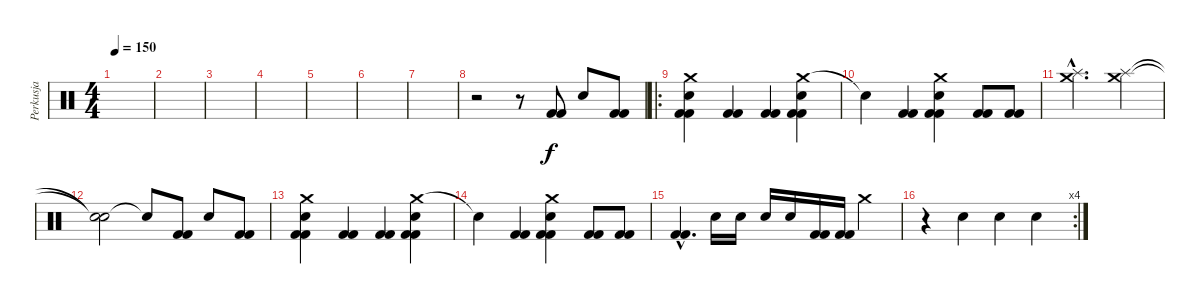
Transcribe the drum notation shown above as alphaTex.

\track ("Perkusja" "Perkusja") {instrument percussion}
\staff {score}
\articulation defaults
\ts (4 4)
\tempo 150
\clef neutral
\ks c
|
|
|
|
|
|
|
r.2 r.8 ("Kick (hit) 2" "Kick (hit) 2").8 "Snare (hit) 2".8 ("Kick (hit) 2" "Kick (hit) 2").8 |
\ro
("Crash medium (hit)" "Snare (hit) 2" "Kick (hit) 2" "Kick (hit) 2").4 ("Kick (hit) 2" "Kick (hit) 2").4 ("Kick (hit) 2" "Kick (hit) 2").4 ("Crash medium (hit)" "Snare (hit) 2" "Kick (hit) 2" "Kick (hit) 2").4 |
"Snare (hit)"{t}.4 ("Kick (hit) 2" "Kick (hit) 2").4 ("Crash medium (hit)" "Snare (hit) 2" "Kick (hit) 2" "Kick (hit) 2").4 ("Kick (hit) 2" "Kick (hit) 2").8 ("Kick (hit) 2" "Kick (hit) 2").8 |
("Crash medium (hit)"{hac} "Splash (hit)"{hac}).2{d} ("Crash medium (hit)" "Splash (hit)").4 |
("Snare (hit)"{t} "Snare (hit)"{t}).2 "Snare (hit)"{t}.8 ("Kick (hit) 2" "Kick (hit) 2").8 "Snare (hit) 2".8 ("Kick (hit) 2" "Kick (hit) 2").8 |
("Crash medium (hit)" "Snare (hit) 2" "Kick (hit) 2" "Kick (hit) 2").4 ("Kick (hit) 2" "Kick (hit) 2").4 ("Kick (hit) 2" "Kick (hit) 2").4 ("Crash medium (hit)" "Snare (hit) 2" "Kick (hit) 2" "Kick (hit) 2").4 |
"Snare (hit)"{t}.4 ("Kick (hit) 2" "Kick (hit) 2").4 ("Crash medium (hit)" "Snare (hit) 2" "Kick (hit) 2" "Kick (hit) 2").4 ("Kick (hit) 2" "Kick (hit) 2").8 ("Kick (hit) 2" "Kick (hit) 2").8 |
("Kick (hit) 2"{hac} "Kick (hit) 2"{hac}).4{d} "Snare (hit) 2".16 "Snare (hit) 2".16 "Snare (hit) 2".16 "Snare (hit) 2".16 ("Kick (hit) 2" "Kick (hit) 2").16 ("Kick (hit) 2" "Kick (hit) 2").16 "Crash medium (hit)".4 |
\rc 4
r.4 "Snare (hit) 2".4 "Snare (hit) 2".4 "Snare (hit) 2".4
